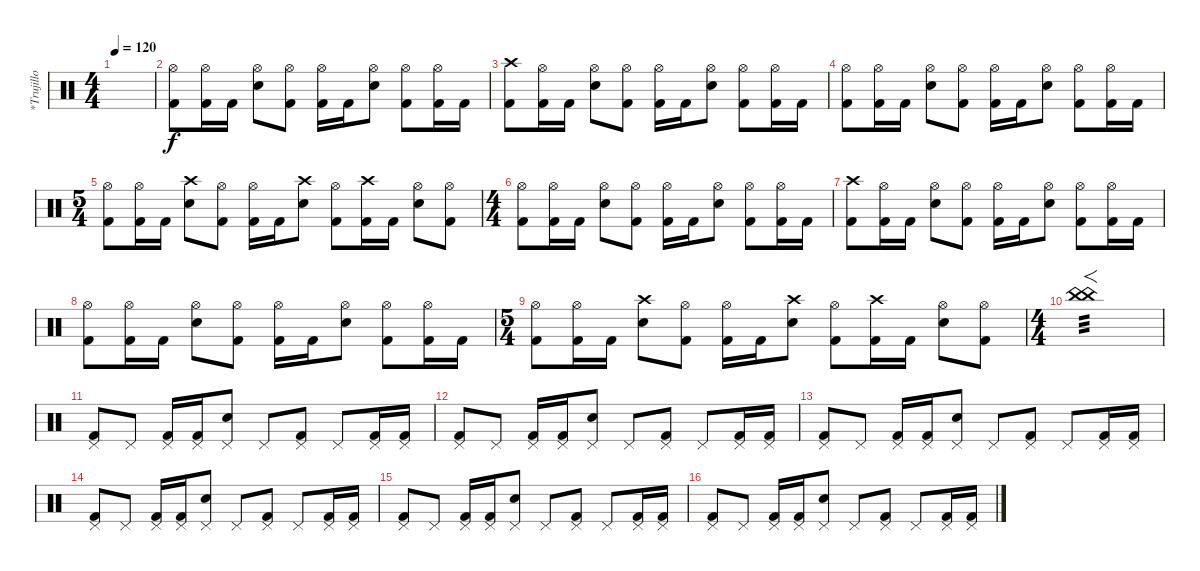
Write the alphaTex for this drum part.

\track ("*Trujillo" "*Trujillo") {instrument percussion}
\staff {score}
\articulation defaults
\ts (4 4)
\tempo 120
\clef neutral
\ks c
|
("Hi-Hat (open)" "Kick (hit) 2").8 ("Hi-Hat (open)" "Kick (hit) 2").16 "Kick (hit) 2".16 ("Hi-Hat (open)" "Electric Snare (hit)").8 ("Hi-Hat (open)" "Kick (hit) 2").8 ("Hi-Hat (open)" "Kick (hit) 2").16 "Kick (hit) 2".16 ("Hi-Hat (open)" "Electric Snare (hit)").8 ("Hi-Hat (open)" "Kick (hit) 2").8 ("Hi-Hat (open)" "Kick (hit) 2").16 "Kick (hit) 2".16 |
("Crash high (hit)" "Kick (hit) 2").8 ("Hi-Hat (open)" "Kick (hit) 2").16 "Kick (hit) 2".16 ("Hi-Hat (open)" "Electric Snare (hit)").8 ("Hi-Hat (open)" "Kick (hit) 2").8 ("Hi-Hat (open)" "Kick (hit) 2").16 "Kick (hit) 2".16 ("Hi-Hat (open)" "Electric Snare (hit)").8 ("Hi-Hat (open)" "Kick (hit) 2").8 ("Hi-Hat (open)" "Kick (hit) 2").16 "Kick (hit) 2".16 |
("Hi-Hat (open)" "Kick (hit) 2").8 ("Hi-Hat (open)" "Kick (hit) 2").16 "Kick (hit) 2".16 ("Hi-Hat (open)" "Electric Snare (hit)").8 ("Hi-Hat (open)" "Kick (hit) 2").8 ("Hi-Hat (open)" "Kick (hit) 2").16 "Kick (hit) 2".16 ("Hi-Hat (open)" "Electric Snare (hit)").8 ("Hi-Hat (open)" "Kick (hit) 2").8 ("Hi-Hat (open)" "Kick (hit) 2").16 "Kick (hit) 2".16 |
\ts (5 4)
("Hi-Hat (open)" "Kick (hit) 2").8 ("Hi-Hat (open)" "Kick (hit) 2").16 "Kick (hit) 2".16 ("Crash high (hit)" "Electric Snare (hit)").8 ("Hi-Hat (open)" "Kick (hit) 2").8 ("Hi-Hat (open)" "Kick (hit) 2").16 "Kick (hit) 2".16 ("Crash high (hit)" "Electric Snare (hit)").8 ("Hi-Hat (open)" "Kick (hit) 2").8 ("Crash high (hit)" "Kick (hit) 2").16 "Kick (hit) 2".16 ("Hi-Hat (open)" "Electric Snare (hit)").8 ("Hi-Hat (open)" "Kick (hit) 2").8 |
\ts (4 4)
("Hi-Hat (open)" "Kick (hit) 2").8 ("Hi-Hat (open)" "Kick (hit) 2").16 "Kick (hit) 2".16 ("Hi-Hat (open)" "Electric Snare (hit)").8 ("Hi-Hat (open)" "Kick (hit) 2").8 ("Hi-Hat (open)" "Kick (hit) 2").16 "Kick (hit) 2".16 ("Hi-Hat (open)" "Electric Snare (hit)").8 ("Hi-Hat (open)" "Kick (hit) 2").8 ("Hi-Hat (open)" "Kick (hit) 2").16 "Kick (hit) 2".16 |
("Crash high (hit)" "Kick (hit) 2").8 ("Hi-Hat (open)" "Kick (hit) 2").16 "Kick (hit) 2".16 ("Hi-Hat (open)" "Electric Snare (hit)").8 ("Hi-Hat (open)" "Kick (hit) 2").8 ("Hi-Hat (open)" "Kick (hit) 2").16 "Kick (hit) 2".16 ("Hi-Hat (open)" "Electric Snare (hit)").8 ("Hi-Hat (open)" "Kick (hit) 2").8 ("Hi-Hat (open)" "Kick (hit) 2").16 "Kick (hit) 2".16 |
("Hi-Hat (open)" "Kick (hit) 2").8 ("Hi-Hat (open)" "Kick (hit) 2").16 "Kick (hit) 2".16 ("Hi-Hat (open)" "Electric Snare (hit)").8 ("Hi-Hat (open)" "Kick (hit) 2").8 ("Hi-Hat (open)" "Kick (hit) 2").16 "Kick (hit) 2".16 ("Hi-Hat (open)" "Electric Snare (hit)").8 ("Hi-Hat (open)" "Kick (hit) 2").8 ("Hi-Hat (open)" "Kick (hit) 2").16 "Kick (hit) 2".16 |
\ts (5 4)
("Hi-Hat (open)" "Kick (hit) 2").8 ("Hi-Hat (open)" "Kick (hit) 2").16 "Kick (hit) 2".16 ("Crash high (hit)" "Electric Snare (hit)").8 ("Hi-Hat (open)" "Kick (hit) 2").8 ("Hi-Hat (open)" "Kick (hit) 2").16 "Kick (hit) 2".16 ("Crash high (hit)" "Electric Snare (hit)").8 ("Hi-Hat (open)" "Kick (hit) 2").8 ("Crash high (hit)" "Kick (hit) 2").16 "Kick (hit) 2".16 ("Hi-Hat (open)" "Electric Snare (hit)").8 ("Hi-Hat (open)" "Kick (hit) 2").8 |
\ts (4 4)
("China (hit)" "China (hit)").1{f tp 3} |
("Pedal Hi-Hat (hit)" "Kick (hit) 2").8 "Pedal Hi-Hat (hit)".8 ("Pedal Hi-Hat (hit)" "Kick (hit) 2").16 ("Pedal Hi-Hat (hit)"{x} "Kick (hit) 2"{x}).16 ("Pedal Hi-Hat (hit)" "Electric Snare (hit)").8 "Pedal Hi-Hat (hit)".8 ("Pedal Hi-Hat (hit)" "Kick (hit) 2").8 "Pedal Hi-Hat (hit)".8 ("Pedal Hi-Hat (hit)" "Kick (hit) 2").16 ("Pedal Hi-Hat (hit)" "Kick (hit) 2").16 |
("Pedal Hi-Hat (hit)" "Kick (hit) 2").8 "Pedal Hi-Hat (hit)".8 ("Pedal Hi-Hat (hit)" "Kick (hit) 2").16 ("Pedal Hi-Hat (hit)"{x} "Kick (hit) 2"{x}).16 ("Pedal Hi-Hat (hit)" "Electric Snare (hit)").8 "Pedal Hi-Hat (hit)".8 ("Pedal Hi-Hat (hit)" "Kick (hit) 2").8 "Pedal Hi-Hat (hit)".8 ("Pedal Hi-Hat (hit)" "Kick (hit) 2").16 ("Pedal Hi-Hat (hit)" "Kick (hit) 2").16 |
("Pedal Hi-Hat (hit)" "Kick (hit) 2").8 "Pedal Hi-Hat (hit)".8 ("Pedal Hi-Hat (hit)" "Kick (hit) 2").16 ("Pedal Hi-Hat (hit)"{x} "Kick (hit) 2"{x}).16 ("Pedal Hi-Hat (hit)" "Electric Snare (hit)").8 "Pedal Hi-Hat (hit)".8 ("Pedal Hi-Hat (hit)" "Kick (hit) 2").8 "Pedal Hi-Hat (hit)".8 ("Pedal Hi-Hat (hit)" "Kick (hit) 2").16 ("Pedal Hi-Hat (hit)" "Kick (hit) 2").16 |
("Pedal Hi-Hat (hit)" "Kick (hit) 2").8 "Pedal Hi-Hat (hit)".8 ("Pedal Hi-Hat (hit)" "Kick (hit) 2").16 ("Pedal Hi-Hat (hit)"{x} "Kick (hit) 2"{x}).16 ("Pedal Hi-Hat (hit)" "Electric Snare (hit)").8 "Pedal Hi-Hat (hit)".8 ("Pedal Hi-Hat (hit)" "Kick (hit) 2").8 "Pedal Hi-Hat (hit)".8 ("Pedal Hi-Hat (hit)" "Kick (hit) 2").16 ("Pedal Hi-Hat (hit)" "Kick (hit) 2").16 |
("Pedal Hi-Hat (hit)" "Kick (hit) 2").8 "Pedal Hi-Hat (hit)".8 ("Pedal Hi-Hat (hit)" "Kick (hit) 2").16 ("Pedal Hi-Hat (hit)"{x} "Kick (hit) 2"{x}).16 ("Pedal Hi-Hat (hit)" "Electric Snare (hit)").8 "Pedal Hi-Hat (hit)".8 ("Pedal Hi-Hat (hit)" "Kick (hit) 2").8 "Pedal Hi-Hat (hit)".8 ("Pedal Hi-Hat (hit)" "Kick (hit) 2").16 ("Pedal Hi-Hat (hit)" "Kick (hit) 2").16 |
("Pedal Hi-Hat (hit)" "Kick (hit) 2").8 "Pedal Hi-Hat (hit)".8 ("Pedal Hi-Hat (hit)" "Kick (hit) 2").16 ("Pedal Hi-Hat (hit)"{x} "Kick (hit) 2"{x}).16 ("Pedal Hi-Hat (hit)" "Electric Snare (hit)").8 "Pedal Hi-Hat (hit)".8 ("Pedal Hi-Hat (hit)" "Kick (hit) 2").8 "Pedal Hi-Hat (hit)".8 ("Pedal Hi-Hat (hit)" "Kick (hit) 2").16 ("Pedal Hi-Hat (hit)" "Kick (hit) 2").16
